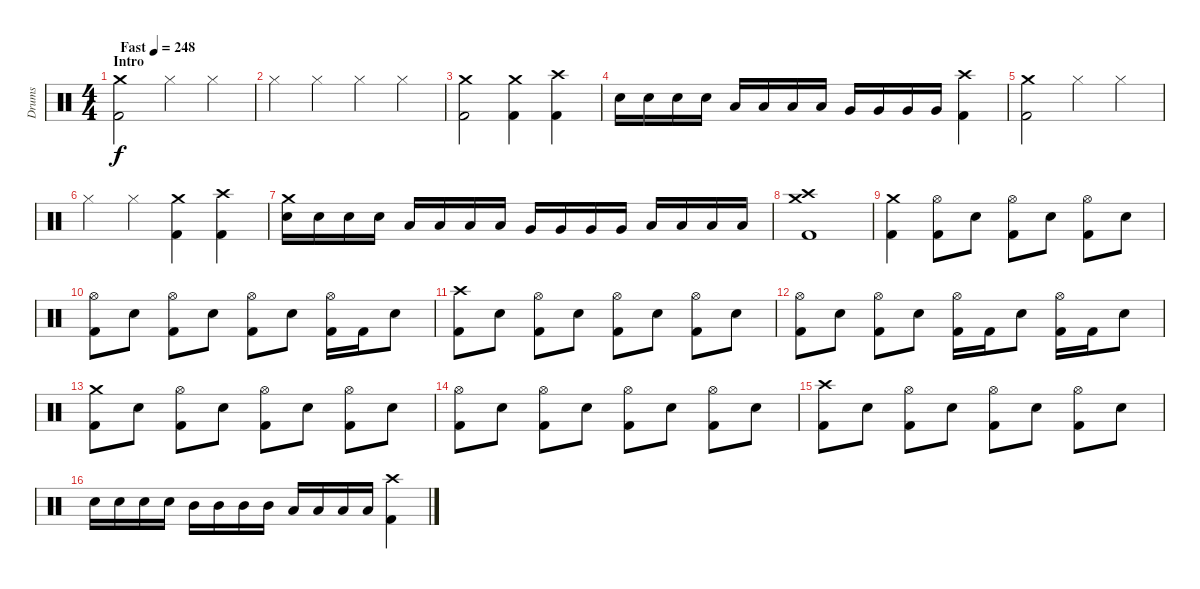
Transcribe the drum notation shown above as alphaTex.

\track ("Drums" "Drums") {instrument percussion}
\staff {score}
\articulation defaults
\ts (4 4)
\section ("" "Intro")
\tempo (248 "Fast")
\clef neutral
\ks c
("Crash medium (hit)" "Kick (hit) 2").2{dy f} "Hi-Hat (closed)".4 "Hi-Hat (closed)".4 |
"Hi-Hat (closed)".4 "Hi-Hat (closed)".4 "Hi-Hat (closed)".4 "Hi-Hat (closed)".4 |
("Crash medium (hit)" "Kick (hit) 2").2 ("Crash medium (hit)" "Kick (hit) 2").4 ("Crash high (hit)" "Kick (hit) 2").4 |
"Snare (hit) 2".16 "Snare (hit) 2".16 "Snare (hit) 2".16 "Snare (hit) 2".16 "Low Tom (hit)".16 "Low Tom (hit)".16 "Low Tom (hit)".16 "Low Tom (hit)".16 "Very Low Tom (hit)".16 "Very Low Tom (hit)".16 "Very Low Tom (hit)".16 "Very Low Tom (hit)".16 ("Crash high (hit)" "Kick (hit) 2").4 |
("Crash medium (hit)" "Kick (hit) 2").2 "Hi-Hat (closed)".4 "Hi-Hat (closed)".4 |
"Hi-Hat (closed)".4 "Hi-Hat (closed)".4 ("Crash medium (hit)" "Kick (hit) 2").4 ("Crash high (hit)" "Kick (hit) 2").4 |
("Crash medium (hit)" "Snare (hit) 2").16 "Snare (hit) 2".16 "Snare (hit) 2".16 "Snare (hit) 2".16 "Low Tom (hit)".16 "Low Tom (hit)".16 "Low Tom (hit)".16 "Low Tom (hit)".16 "Very Low Tom (hit)".16 "Very Low Tom (hit)".16 "Very Low Tom (hit)".16 "Very Low Tom (hit)".16 "Low Floor Tom (hit)".16 "Low Floor Tom (hit)".16 "Low Floor Tom (hit)".16 "Low Floor Tom (hit)".16 |
("Crash high (hit)" "Crash medium (hit)" "Kick (hit) 2").1 |
("Crash medium (hit)" "Kick (hit) 2").4 ("Hi-Hat (open)" "Kick (hit) 2").8 "Snare (hit) 2".8 ("Hi-Hat (open)" "Kick (hit) 2").8 "Snare (hit) 2".8 ("Hi-Hat (open)" "Kick (hit) 2").8 "Snare (hit) 2".8 |
("Hi-Hat (open)" "Kick (hit) 2").8 "Snare (hit) 2".8 ("Hi-Hat (open)" "Kick (hit) 2").8 "Snare (hit) 2".8 ("Hi-Hat (open)" "Kick (hit) 2").8 "Snare (hit) 2".8 ("Hi-Hat (open)" "Kick (hit) 2").16 "Kick (hit) 2".16 "Snare (hit) 2".8 |
("Crash high (hit)" "Kick (hit) 2").8 "Snare (hit) 2".8 ("Hi-Hat (open)" "Kick (hit) 2").8 "Snare (hit) 2".8 ("Hi-Hat (open)" "Kick (hit) 2").8 "Snare (hit) 2".8 ("Hi-Hat (open)" "Kick (hit) 2").8 "Snare (hit) 2".8 |
("Hi-Hat (open)" "Kick (hit) 2").8 "Snare (hit) 2".8 ("Hi-Hat (open)" "Kick (hit) 2").8 "Snare (hit) 2".8 ("Hi-Hat (open)" "Kick (hit) 2").16 "Kick (hit) 2".16 "Snare (hit) 2".8 ("Hi-Hat (open)" "Kick (hit) 2").16 "Kick (hit) 2".16 "Snare (hit) 2".8 |
("Crash medium (hit)" "Kick (hit) 2").8 "Snare (hit) 2".8 ("Hi-Hat (open)" "Kick (hit) 2").8 "Snare (hit) 2".8 ("Hi-Hat (open)" "Kick (hit) 2").8 "Snare (hit) 2".8 ("Hi-Hat (open)" "Kick (hit) 2").8 "Snare (hit) 2".8 |
("Hi-Hat (open)" "Kick (hit) 2").8 "Snare (hit) 2".8 ("Hi-Hat (open)" "Kick (hit) 2").8 "Snare (hit) 2".8 ("Hi-Hat (open)" "Kick (hit) 2").8 "Snare (hit) 2".8 ("Hi-Hat (open)" "Kick (hit) 2").8 "Snare (hit) 2".8 |
("Crash high (hit)" "Kick (hit) 2").8 "Snare (hit) 2".8 ("Hi-Hat (open)" "Kick (hit) 2").8 "Snare (hit) 2".8 ("Hi-Hat (open)" "Kick (hit) 2").8 "Snare (hit) 2".8 ("Hi-Hat (open)" "Kick (hit) 2").8 "Snare (hit) 2".8 |
"Snare (hit) 2".16 "Snare (hit) 2".16 "Snare (hit) 2".16 "Snare (hit) 2".16 "Mid Tom (hit)".16 "Mid Tom (hit)".16 "Mid Tom (hit)".16 "Mid Tom (hit)".16 "Low Tom (hit)".16 "Low Tom (hit)".16 "Low Tom (hit)".16 "Low Tom (hit)".16 ("Crash high (hit)" "Kick (hit) 2").4
